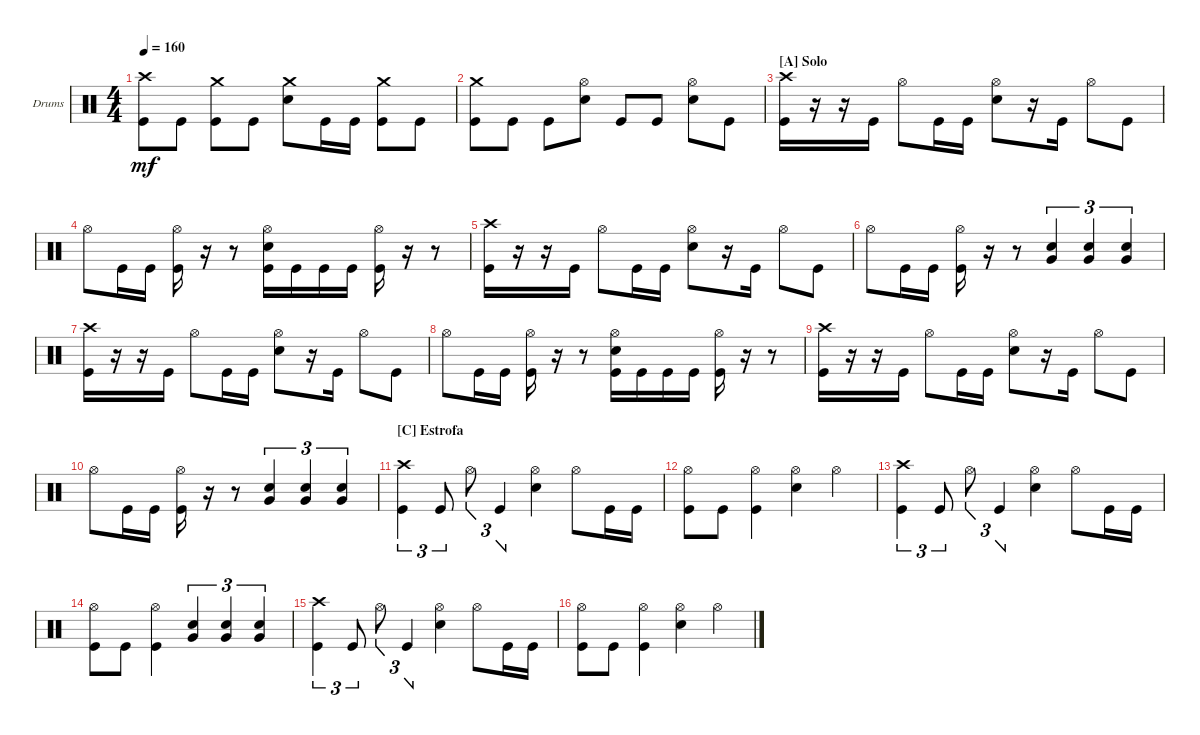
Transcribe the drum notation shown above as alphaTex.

\bracketExtendMode groupsimilarinstruments
\firstSystemTrackNameOrientation horizontal
\otherSystemsTrackNameOrientation horizontal
\track ("Nick Augusto" "Drums") {instrument percussion}
\staff {score}
\articulation defaults
\ts (4 4)
\tempo 160
\clef neutral
\ks c
("Kick (hit)" "Crash high (hit)").8{dy mf} "Kick (hit)".8 ("Crash medium (hit)" "Kick (hit)").8 "Kick (hit)".8 ("Crash medium (hit)" "Snare (hit) 2").8 "Kick (hit)".16 "Kick (hit)".16 ("Crash medium (hit)" "Kick (hit)").8 "Kick (hit)".8 |
("Kick (hit)" "Crash medium (hit)").8 "Kick (hit)".8 "Kick (hit)".8 ("Snare (hit) 2" "Hi-Hat (open)").8 "Kick (hit)".8 "Kick (hit)".8 ("Snare (hit) 2" "Hi-Hat (open)").8 "Kick (hit)".8 |
\section ("A" "Solo")
("Kick (hit)" "Crash high (hit)").16 r.16 r.16 "Kick (hit)".16 "Hi-Hat (open)".8 "Kick (hit)".16 "Kick (hit)".16 ("Snare (hit) 2" "Hi-Hat (open)").8 r.16 "Kick (hit)".16 "Hi-Hat (open)".8 "Kick (hit)".8 |
"Hi-Hat (open)".8 "Kick (hit)".16 "Kick (hit)".16 ("Kick (hit)" "Hi-Hat (open)").16 r.16 r.8 ("Kick (hit)" "Snare (hit) 2" "Hi-Hat (open)").16 "Kick (hit)".16 "Kick (hit)".16 "Kick (hit)".16 ("Kick (hit)" "Hi-Hat (open)").16 r.16 r.8 |
("Kick (hit)" "Crash high (hit)").16 r.16 r.16 "Kick (hit)".16 "Hi-Hat (open)".8 "Kick (hit)".16 "Kick (hit)".16 ("Snare (hit) 2" "Hi-Hat (open)").8 r.16 "Kick (hit)".16 "Hi-Hat (open)".8 "Kick (hit)".8 |
"Hi-Hat (open)".8 "Kick (hit)".16 "Kick (hit)".16 ("Kick (hit)" "Hi-Hat (open)").16 r.16 r.8 ("Snare (hit) 2" "Very Low Tom (hit)").4{tu (3 2)} ("Snare (hit) 2" "Very Low Tom (hit)").4{tu (3 2)} ("Snare (hit) 2" "Very Low Tom (hit)").4{tu (3 2)} |
("Kick (hit)" "Crash high (hit)").16 r.16 r.16 "Kick (hit)".16 "Hi-Hat (open)".8 "Kick (hit)".16 "Kick (hit)".16 ("Snare (hit) 2" "Hi-Hat (open)").8 r.16 "Kick (hit)".16 "Hi-Hat (open)".8 "Kick (hit)".8 |
"Hi-Hat (open)".8 "Kick (hit)".16 "Kick (hit)".16 ("Kick (hit)" "Hi-Hat (open)").16 r.16 r.8 ("Kick (hit)" "Snare (hit) 2" "Hi-Hat (open)").16 "Kick (hit)".16 "Kick (hit)".16 "Kick (hit)".16 ("Kick (hit)" "Hi-Hat (open)").16 r.16 r.8 |
("Kick (hit)" "Crash high (hit)").16 r.16 r.16 "Kick (hit)".16 "Hi-Hat (open)".8 "Kick (hit)".16 "Kick (hit)".16 ("Snare (hit) 2" "Hi-Hat (open)").8 r.16 "Kick (hit)".16 "Hi-Hat (open)".8 "Kick (hit)".8 |
"Hi-Hat (open)".8 "Kick (hit)".16 "Kick (hit)".16 ("Kick (hit)" "Hi-Hat (open)").16 r.16 r.8 ("Snare (hit) 2" "Very Low Tom (hit)").4{tu (3 2)} ("Snare (hit) 2" "Very Low Tom (hit)").4{tu (3 2)} ("Snare (hit) 2" "Very Low Tom (hit)").4{tu (3 2)} |
\section ("C" "Estrofa")
("Kick (hit)" "Crash high (hit)").4{tu (3 2)} "Kick (hit)".8{tu (3 2)} "Hi-Hat (open)".8{tu (3 2)} "Kick (hit)".4{tu (3 2)} ("Snare (hit) 2" "Hi-Hat (open)").4 "Hi-Hat (open)".8 "Kick (hit)".16 "Kick (hit)".16 |
("Hi-Hat (open)" "Kick (hit)").8 "Kick (hit)".8 ("Kick (hit)" "Hi-Hat (open)").4 ("Hi-Hat (open)" "Snare (hit) 2").4 "Hi-Hat (open)".4 |
("Kick (hit)" "Crash high (hit)").4{tu (3 2)} "Kick (hit)".8{tu (3 2)} "Hi-Hat (open)".8{tu (3 2)} "Kick (hit)".4{tu (3 2)} ("Snare (hit) 2" "Hi-Hat (open)").4 "Hi-Hat (open)".8 "Kick (hit)".16 "Kick (hit)".16 |
("Hi-Hat (open)" "Kick (hit)").8 "Kick (hit)".8 ("Kick (hit)" "Hi-Hat (open)").4 ("Snare (hit) 2" "Very Low Tom (hit)").4{tu (3 2)} ("Snare (hit) 2" "Very Low Tom (hit)").4{tu (3 2)} ("Snare (hit) 2" "Very Low Tom (hit)").4{tu (3 2)} |
("Kick (hit)" "Crash high (hit)").4{tu (3 2)} "Kick (hit)".8{tu (3 2)} "Hi-Hat (open)".8{tu (3 2)} "Kick (hit)".4{tu (3 2)} ("Snare (hit) 2" "Hi-Hat (open)").4 "Hi-Hat (open)".8 "Kick (hit)".16 "Kick (hit)".16 |
("Hi-Hat (open)" "Kick (hit)").8 "Kick (hit)".8 ("Kick (hit)" "Hi-Hat (open)").4 ("Hi-Hat (open)" "Snare (hit) 2").4 "Hi-Hat (open)".4
